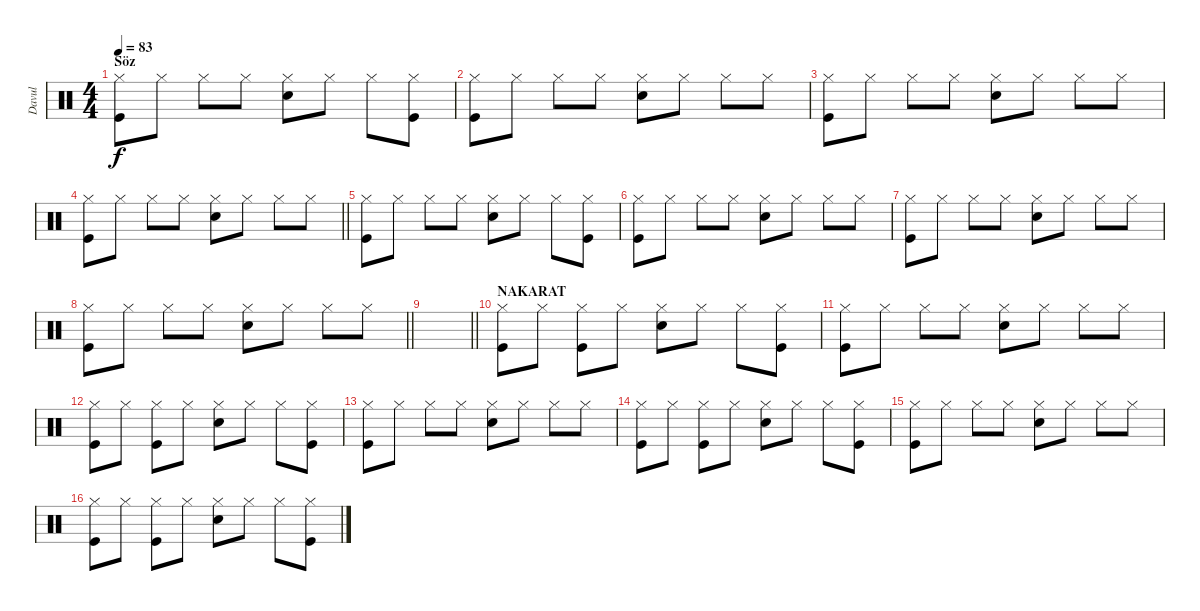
\track ("Davul" "Davul") {instrument percussion}
\staff {score}
\articulation defaults
\ts (4 4)
\section ("" "Söz")
\tempo 83
\clef neutral
\ks c
("Hi-Hat (closed)" "Kick (hit)").8{dy f} "Hi-Hat (closed)".8 "Hi-Hat (closed)".8 "Hi-Hat (closed)".8 ("Hi-Hat (closed)" "Electric Snare (hit)").8 "Hi-Hat (closed)".8 "Hi-Hat (closed)".8 ("Hi-Hat (closed)" "Kick (hit)").8 |
("Hi-Hat (closed)" "Kick (hit)").8 "Hi-Hat (closed)".8 "Hi-Hat (closed)".8 "Hi-Hat (closed)".8 ("Hi-Hat (closed)" "Electric Snare (hit)").8 "Hi-Hat (closed)".8 "Hi-Hat (closed)".8 "Hi-Hat (closed)".8 |
("Hi-Hat (closed)" "Kick (hit)").8 "Hi-Hat (closed)".8 "Hi-Hat (closed)".8 "Hi-Hat (closed)".8 ("Hi-Hat (closed)" "Electric Snare (hit)").8 "Hi-Hat (closed)".8 "Hi-Hat (closed)".8 "Hi-Hat (closed)".8 |
\barLineRight lightlight
("Hi-Hat (closed)" "Kick (hit)").8 "Hi-Hat (closed)".8 "Hi-Hat (closed)".8 "Hi-Hat (closed)".8 ("Hi-Hat (closed)" "Electric Snare (hit)").8 "Hi-Hat (closed)".8 "Hi-Hat (closed)".8 "Hi-Hat (closed)".8 |
("Hi-Hat (closed)" "Kick (hit)").8 "Hi-Hat (closed)".8 "Hi-Hat (closed)".8 "Hi-Hat (closed)".8 ("Hi-Hat (closed)" "Electric Snare (hit)").8 "Hi-Hat (closed)".8 "Hi-Hat (closed)".8 ("Hi-Hat (closed)" "Kick (hit)").8 |
("Hi-Hat (closed)" "Kick (hit)").8 "Hi-Hat (closed)".8 "Hi-Hat (closed)".8 "Hi-Hat (closed)".8 ("Hi-Hat (closed)" "Electric Snare (hit)").8 "Hi-Hat (closed)".8 "Hi-Hat (closed)".8 "Hi-Hat (closed)".8 |
("Hi-Hat (closed)" "Kick (hit)").8 "Hi-Hat (closed)".8 "Hi-Hat (closed)".8 "Hi-Hat (closed)".8 ("Hi-Hat (closed)" "Electric Snare (hit)").8 "Hi-Hat (closed)".8 "Hi-Hat (closed)".8 "Hi-Hat (closed)".8 |
\barLineRight lightlight
("Hi-Hat (closed)" "Kick (hit)").8 "Hi-Hat (closed)".8 "Hi-Hat (closed)".8 "Hi-Hat (closed)".8 ("Hi-Hat (closed)" "Electric Snare (hit)").8 "Hi-Hat (closed)".8 "Hi-Hat (closed)".8 "Hi-Hat (closed)".8 |
\barLineRight lightlight
|
\section ("" "NAKARAT")
("Hi-Hat (closed)" "Kick (hit)").8 "Hi-Hat (closed)".8 ("Hi-Hat (closed)" "Kick (hit)").8 "Hi-Hat (closed)".8 ("Hi-Hat (closed)" "Electric Snare (hit)").8 "Hi-Hat (closed)".8 "Hi-Hat (closed)".8 ("Hi-Hat (closed)" "Kick (hit)").8 |
("Hi-Hat (closed)" "Kick (hit)").8 "Hi-Hat (closed)".8 "Hi-Hat (closed)".8 "Hi-Hat (closed)".8 ("Hi-Hat (closed)" "Electric Snare (hit)").8 "Hi-Hat (closed)".8 "Hi-Hat (closed)".8 "Hi-Hat (closed)".8 |
("Hi-Hat (closed)" "Kick (hit)").8 "Hi-Hat (closed)".8 ("Hi-Hat (closed)" "Kick (hit)").8 "Hi-Hat (closed)".8 ("Hi-Hat (closed)" "Electric Snare (hit)").8 "Hi-Hat (closed)".8 "Hi-Hat (closed)".8 ("Hi-Hat (closed)" "Kick (hit)").8 |
("Hi-Hat (closed)" "Kick (hit)").8 "Hi-Hat (closed)".8 "Hi-Hat (closed)".8 "Hi-Hat (closed)".8 ("Hi-Hat (closed)" "Electric Snare (hit)").8 "Hi-Hat (closed)".8 "Hi-Hat (closed)".8 "Hi-Hat (closed)".8 |
("Hi-Hat (closed)" "Kick (hit)").8 "Hi-Hat (closed)".8 ("Hi-Hat (closed)" "Kick (hit)").8 "Hi-Hat (closed)".8 ("Hi-Hat (closed)" "Electric Snare (hit)").8 "Hi-Hat (closed)".8 "Hi-Hat (closed)".8 ("Hi-Hat (closed)" "Kick (hit)").8 |
("Hi-Hat (closed)" "Kick (hit)").8 "Hi-Hat (closed)".8 "Hi-Hat (closed)".8 "Hi-Hat (closed)".8 ("Hi-Hat (closed)" "Electric Snare (hit)").8 "Hi-Hat (closed)".8 "Hi-Hat (closed)".8 "Hi-Hat (closed)".8 |
("Hi-Hat (closed)" "Kick (hit)").8 "Hi-Hat (closed)".8 ("Hi-Hat (closed)" "Kick (hit)").8 "Hi-Hat (closed)".8 ("Hi-Hat (closed)" "Electric Snare (hit)").8 "Hi-Hat (closed)".8 "Hi-Hat (closed)".8 ("Hi-Hat (closed)" "Kick (hit)").8
